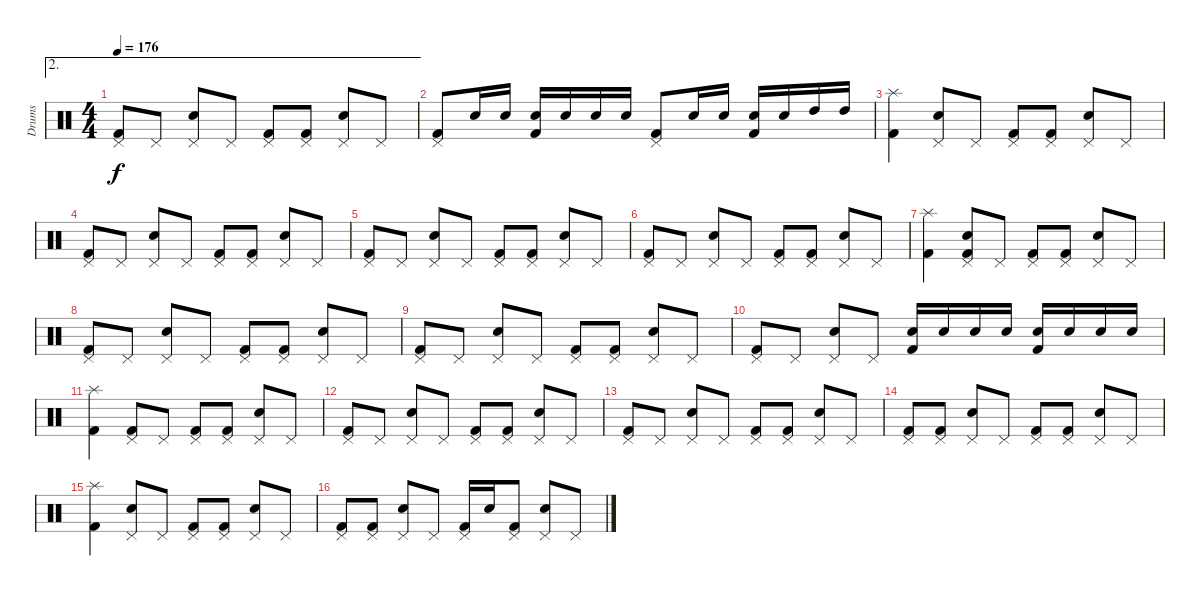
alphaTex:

\track ("Drums" "Drums") {instrument percussion}
\staff {score}
\articulation defaults
\ae 2
\ts (4 4)
\tempo 176
\clef neutral
\ks c
("Pedal Hi-Hat (hit)" "Kick (hit) 2").8{dy f} "Pedal Hi-Hat (hit)".8 ("Pedal Hi-Hat (hit)" "Snare (hit) 2").8 "Pedal Hi-Hat (hit)".8 ("Kick (hit) 2" "Pedal Hi-Hat (hit)").8 ("Kick (hit) 2" "Pedal Hi-Hat (hit)").8 ("Snare (hit) 2" "Pedal Hi-Hat (hit)").8 "Pedal Hi-Hat (hit)".8 |
("Pedal Hi-Hat (hit)" "Kick (hit) 2").8 "Snare (hit) 2".16 "Snare (hit) 2".16 ("Snare (hit) 2" "Kick (hit) 2").16 "Snare (hit) 2".16 "Snare (hit) 2".16 "Snare (hit) 2".16 ("Pedal Hi-Hat (hit)" "Kick (hit) 2").8 "Snare (hit) 2".16 "Snare (hit) 2".16 ("Snare (hit) 2" "Kick (hit) 2").16 "Snare (hit) 2".16 "High Tom (hit)".16 "High Tom (hit)".16 |
("Splash (hit)" "Kick (hit) 2").4 ("Pedal Hi-Hat (hit)" "Snare (hit) 2").8 "Pedal Hi-Hat (hit)".8 ("Pedal Hi-Hat (hit)" "Kick (hit) 2").8 ("Pedal Hi-Hat (hit)" "Kick (hit) 2").8 ("Pedal Hi-Hat (hit)" "Snare (hit) 2").8 "Pedal Hi-Hat (hit)".8 |
("Pedal Hi-Hat (hit)" "Kick (hit) 2").8 "Pedal Hi-Hat (hit)".8 ("Snare (hit) 2" "Pedal Hi-Hat (hit)").8 "Pedal Hi-Hat (hit)".8 ("Pedal Hi-Hat (hit)" "Kick (hit) 2").8 ("Kick (hit) 2" "Pedal Hi-Hat (hit)").8 ("Pedal Hi-Hat (hit)" "Snare (hit) 2").8 "Pedal Hi-Hat (hit)".8 |
("Pedal Hi-Hat (hit)" "Kick (hit) 2").8 "Pedal Hi-Hat (hit)".8 ("Snare (hit) 2" "Pedal Hi-Hat (hit)").8 "Pedal Hi-Hat (hit)".8 ("Pedal Hi-Hat (hit)" "Kick (hit) 2").8 ("Kick (hit) 2" "Pedal Hi-Hat (hit)").8 ("Pedal Hi-Hat (hit)" "Snare (hit) 2").8 "Pedal Hi-Hat (hit)".8 |
("Pedal Hi-Hat (hit)" "Kick (hit) 2").8 "Pedal Hi-Hat (hit)".8 ("Snare (hit) 2" "Pedal Hi-Hat (hit)").8 "Pedal Hi-Hat (hit)".8 ("Pedal Hi-Hat (hit)" "Kick (hit) 2").8 ("Kick (hit) 2" "Pedal Hi-Hat (hit)").8 ("Pedal Hi-Hat (hit)" "Snare (hit) 2").8 "Pedal Hi-Hat (hit)".8 |
("Splash (hit)" "Kick (hit) 2").4 ("Pedal Hi-Hat (hit)" "Snare (hit) 2" "Kick (hit) 2").8 "Pedal Hi-Hat (hit)".8 ("Kick (hit) 2" "Pedal Hi-Hat (hit)").8 ("Kick (hit) 2" "Pedal Hi-Hat (hit)").8 ("Snare (hit) 2" "Pedal Hi-Hat (hit)").8 "Pedal Hi-Hat (hit)".8 |
("Pedal Hi-Hat (hit)" "Kick (hit) 2").8 "Pedal Hi-Hat (hit)".8 ("Snare (hit) 2" "Pedal Hi-Hat (hit)").8 "Pedal Hi-Hat (hit)".8 ("Pedal Hi-Hat (hit)" "Kick (hit) 2").8 ("Kick (hit) 2" "Pedal Hi-Hat (hit)").8 ("Pedal Hi-Hat (hit)" "Snare (hit) 2").8 "Pedal Hi-Hat (hit)".8 |
("Pedal Hi-Hat (hit)" "Kick (hit) 2").8 "Pedal Hi-Hat (hit)".8 ("Snare (hit) 2" "Pedal Hi-Hat (hit)").8 "Pedal Hi-Hat (hit)".8 ("Pedal Hi-Hat (hit)" "Kick (hit) 2").8 ("Kick (hit) 2" "Pedal Hi-Hat (hit)").8 ("Pedal Hi-Hat (hit)" "Snare (hit) 2").8 "Pedal Hi-Hat (hit)".8 |
("Pedal Hi-Hat (hit)" "Kick (hit) 2").8 "Pedal Hi-Hat (hit)".8 ("Snare (hit) 2" "Pedal Hi-Hat (hit)").8 "Pedal Hi-Hat (hit)".8 ("Kick (hit) 2" "Snare (hit) 2").16 "Snare (hit) 2".16 "Snare (hit) 2".16 "Snare (hit) 2".16 ("Snare (hit) 2" "Kick (hit) 2").16 "Snare (hit) 2".16 "Snare (hit) 2".16 "Snare (hit) 2".16 |
("Kick (hit) 2" "Splash (hit)").4 ("Kick (hit) 2" "Pedal Hi-Hat (hit)").8 "Pedal Hi-Hat (hit)".8 ("Kick (hit) 2" "Pedal Hi-Hat (hit)").8 ("Kick (hit) 2" "Pedal Hi-Hat (hit)").8 ("Snare (hit) 2" "Pedal Hi-Hat (hit)").8 "Pedal Hi-Hat (hit)".8 |
("Pedal Hi-Hat (hit)" "Kick (hit) 2").8 "Pedal Hi-Hat (hit)".8 ("Snare (hit) 2" "Pedal Hi-Hat (hit)").8 "Pedal Hi-Hat (hit)".8 ("Pedal Hi-Hat (hit)" "Kick (hit) 2").8 ("Kick (hit) 2" "Pedal Hi-Hat (hit)").8 ("Pedal Hi-Hat (hit)" "Snare (hit) 2").8 "Pedal Hi-Hat (hit)".8 |
("Pedal Hi-Hat (hit)" "Kick (hit) 2").8 "Pedal Hi-Hat (hit)".8 ("Snare (hit) 2" "Pedal Hi-Hat (hit)").8 "Pedal Hi-Hat (hit)".8 ("Pedal Hi-Hat (hit)" "Kick (hit) 2").8 ("Kick (hit) 2" "Pedal Hi-Hat (hit)").8 ("Pedal Hi-Hat (hit)" "Snare (hit) 2").8 "Pedal Hi-Hat (hit)".8 |
("Pedal Hi-Hat (hit)" "Kick (hit) 2").8 ("Pedal Hi-Hat (hit)" "Kick (hit) 2").8 ("Snare (hit) 2" "Pedal Hi-Hat (hit)").8 "Pedal Hi-Hat (hit)".8 ("Pedal Hi-Hat (hit)" "Kick (hit) 2").8 ("Kick (hit) 2" "Pedal Hi-Hat (hit)").8 ("Pedal Hi-Hat (hit)" "Snare (hit) 2").8 "Pedal Hi-Hat (hit)".8 |
("Kick (hit) 2" "Splash (hit)").4 ("Snare (hit) 2" "Pedal Hi-Hat (hit)").8 "Pedal Hi-Hat (hit)".8 ("Pedal Hi-Hat (hit)" "Kick (hit) 2").8 ("Pedal Hi-Hat (hit)" "Kick (hit) 2").8 ("Pedal Hi-Hat (hit)" "Snare (hit) 2").8 "Pedal Hi-Hat (hit)".8 |
("Kick (hit) 2" "Pedal Hi-Hat (hit)").8 ("Kick (hit) 2" "Pedal Hi-Hat (hit)").8 ("Snare (hit) 2" "Pedal Hi-Hat (hit)").8 "Pedal Hi-Hat (hit)".8 ("Pedal Hi-Hat (hit)" "Kick (hit) 2").16 "Snare (hit) 2".16 ("Pedal Hi-Hat (hit)" "Kick (hit) 2").8 ("Pedal Hi-Hat (hit)" "Snare (hit) 2").8 "Pedal Hi-Hat (hit)".8
